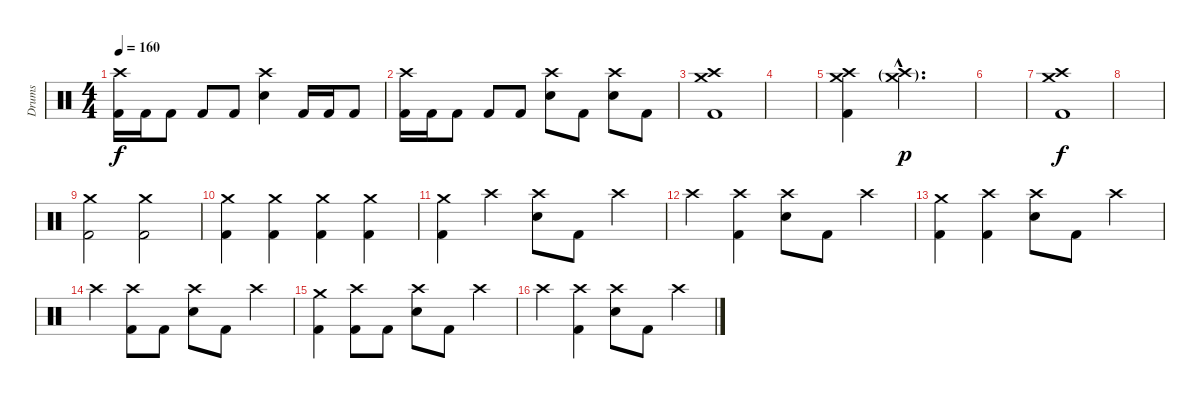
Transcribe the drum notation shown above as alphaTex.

\track ("Drums" "Drums") {instrument percussion}
\staff {score}
\articulation defaults
\ts (4 4)
\tempo 160
\clef neutral
\ks c
("Crash high (hit)" "Kick (hit) 2").16{dy f} "Kick (hit) 2".16 "Kick (hit) 2".8 "Kick (hit) 2".8 "Kick (hit) 2".8 ("Crash high (hit)" "Electric Snare (hit)").4 "Kick (hit) 2".16 "Kick (hit) 2".16 "Kick (hit) 2".8 |
("Crash high (hit)" "Kick (hit) 2").16 "Kick (hit) 2".16 "Kick (hit) 2".8 "Kick (hit) 2".8 "Kick (hit) 2".8 ("Crash high (hit)" "Electric Snare (hit)").8 "Kick (hit) 2".8 ("Crash high (hit)" "Electric Snare (hit)").8 "Kick (hit) 2".8 |
("Crash medium (hit)" "Crash high (hit)" "Kick (hit) 2").1 |
|
("Crash medium (hit)" "Crash high (hit)" "Kick (hit) 2").4 ("Crash medium (hit)"{g hac} "Crash high (hit)"{g hac}).2{d dy p} |
|
("Crash medium (hit)" "Crash high (hit)" "Kick (hit) 2").1{dy f} |
|
("Crash medium (hit)" "Kick (hit) 2").2 ("Crash medium (hit)" "Kick (hit) 2").2 |
("Crash medium (hit)" "Kick (hit) 2").4 ("Crash medium (hit)" "Kick (hit) 2").4 ("Crash medium (hit)" "Kick (hit) 2").4 ("Crash medium (hit)" "Kick (hit) 2").4 |
("Crash medium (hit)" "Kick (hit) 2").4 "Crash high (hit)".4 ("Crash high (hit)" "Electric Snare (hit)").8 "Kick (hit) 2".8 "Crash high (hit)".4 |
"Crash high (hit)".4 ("Crash high (hit)" "Kick (hit) 2").4 ("Crash high (hit)" "Electric Snare (hit)").8 "Kick (hit) 2".8 "Crash high (hit)".4 |
("Crash medium (hit)" "Kick (hit) 2").4 ("Crash high (hit)" "Kick (hit) 2").4 ("Crash high (hit)" "Electric Snare (hit)").8 "Kick (hit) 2".8 "Crash high (hit)".4 |
"Crash high (hit)".4 ("Crash high (hit)" "Kick (hit) 2").8 "Kick (hit) 2".8 ("Crash high (hit)" "Electric Snare (hit)").8 "Kick (hit) 2".8 "Crash high (hit)".4 |
("Crash medium (hit)" "Kick (hit) 2").4 ("Crash high (hit)" "Kick (hit) 2").8 "Kick (hit) 2".8 ("Crash high (hit)" "Electric Snare (hit)").8 "Kick (hit) 2".8 "Crash high (hit)".4 |
"Crash high (hit)".4 ("Crash high (hit)" "Kick (hit) 2").4 ("Crash high (hit)" "Electric Snare (hit)").8 "Kick (hit) 2".8 "Crash high (hit)".4
